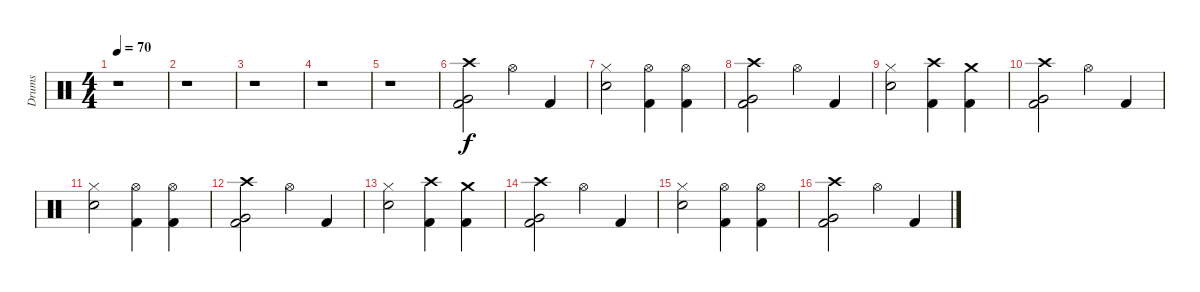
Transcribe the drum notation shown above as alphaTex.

\track ("Drums" "Drums") {instrument percussion}
\staff {score}
\articulation defaults
\ts (4 4)
\tempo 70
\clef neutral
\ks c
r.1{dy f} |
r.1 |
r.1 |
r.1 |
r.1 |
("Crash high (hit)" "Very Low Tom (hit)" "Kick (hit) 2").2 "Hi-Hat (open)".4 "Kick (hit) 2".4 |
("Hi-Hat (closed)" "Electric Snare (hit)").2 ("Hi-Hat (open)" "Kick (hit) 2").4 ("Hi-Hat (open)" "Kick (hit) 2").4 |
("Crash high (hit)" "Very Low Tom (hit)" "Kick (hit) 2").2 "Hi-Hat (open)".4 "Kick (hit) 2".4 |
("Hi-Hat (closed)" "Electric Snare (hit)").2 ("Crash high (hit)" "Kick (hit) 2").4 ("Crash medium (hit)" "Kick (hit) 2").4 |
("Crash high (hit)" "Very Low Tom (hit)" "Kick (hit) 2").2 "Hi-Hat (open)".4 "Kick (hit) 2".4 |
("Hi-Hat (closed)" "Electric Snare (hit)").2 ("Hi-Hat (open)" "Kick (hit) 2").4 ("Hi-Hat (open)" "Kick (hit) 2").4 |
("Crash high (hit)" "Very Low Tom (hit)" "Kick (hit) 2").2 "Hi-Hat (open)".4 "Kick (hit) 2".4 |
("Hi-Hat (closed)" "Electric Snare (hit)").2 ("Crash high (hit)" "Kick (hit) 2").4 ("Crash medium (hit)" "Kick (hit) 2").4 |
("Crash high (hit)" "Very Low Tom (hit)" "Kick (hit) 2").2 "Hi-Hat (open)".4 "Kick (hit) 2".4 |
("Hi-Hat (closed)" "Electric Snare (hit)").2 ("Hi-Hat (open)" "Kick (hit) 2").4 ("Hi-Hat (open)" "Kick (hit) 2").4 |
("Crash high (hit)" "Very Low Tom (hit)" "Kick (hit) 2").2 "Hi-Hat (open)".4 "Kick (hit) 2".4
